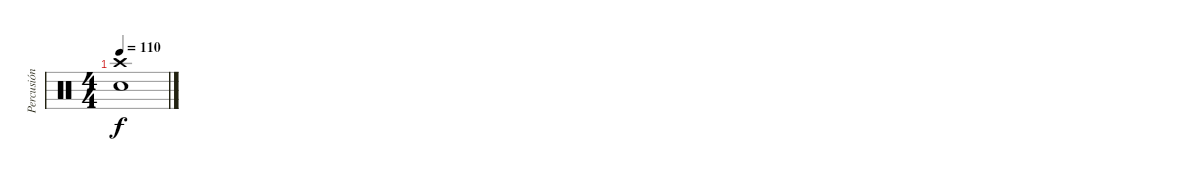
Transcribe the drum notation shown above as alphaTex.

\track ("Percusión" "Percusión") {instrument percussion}
\staff {score}
\articulation defaults
\ts (4 4)
\tempo 110
\clef neutral
\ks c
("Crash high (hit)" "Electric Snare (hit)").1{dy f}
